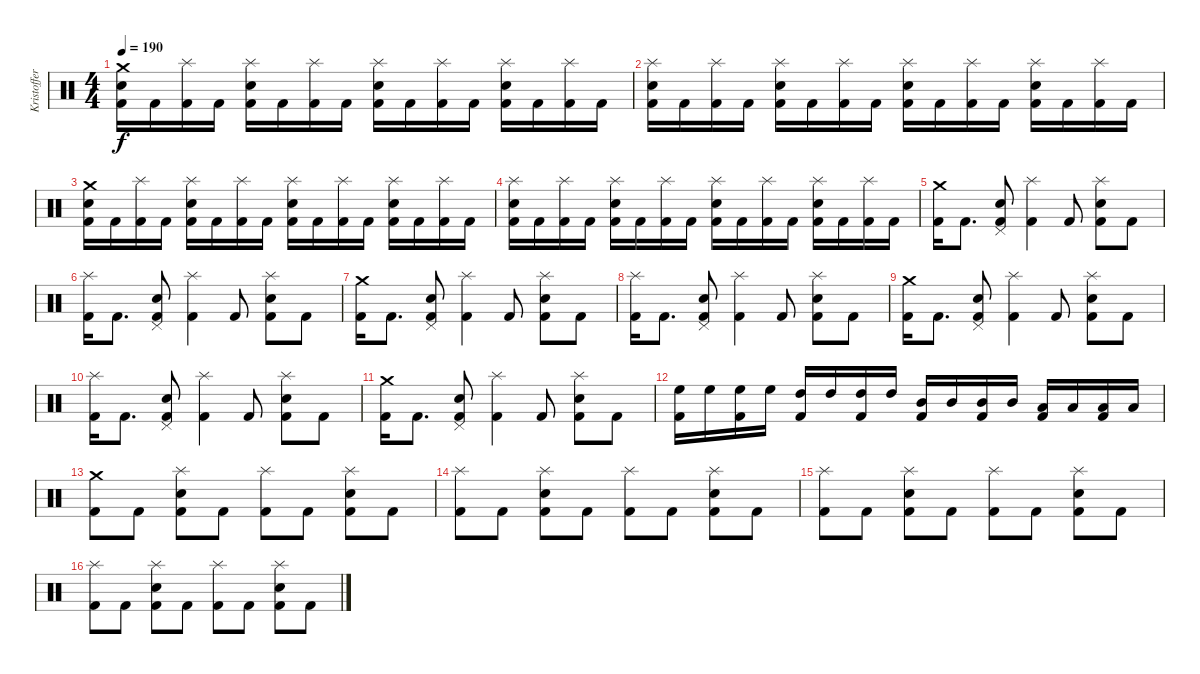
\track ("Kristoffer (Drums)" "Kristoffer") {instrument percussion}
\staff {score}
\articulation defaults
\ts (4 4)
\tempo 190
\clef neutral
\ks c
("Kick (hit) 2" "Electric Snare (hit)" "Crash medium (hit)").16{dy f} "Kick (hit) 2".16 ("Kick (hit) 2" "Splash (hit)").16 "Kick (hit) 2".16 ("Kick (hit) 2" "Electric Snare (hit)" "Splash (hit)").16 "Kick (hit) 2".16 ("Kick (hit) 2" "Splash (hit)").16 "Kick (hit) 2".16 ("Kick (hit) 2" "Electric Snare (hit)" "Splash (hit)").16 "Kick (hit) 2".16 ("Kick (hit) 2" "Splash (hit)").16 "Kick (hit) 2".16 ("Kick (hit) 2" "Electric Snare (hit)" "Splash (hit)").16 "Kick (hit) 2".16 ("Kick (hit) 2" "Splash (hit)").16 "Kick (hit) 2".16 |
("Kick (hit) 2" "Electric Snare (hit)" "Splash (hit)").16 "Kick (hit) 2".16 ("Kick (hit) 2" "Splash (hit)").16 "Kick (hit) 2".16 ("Kick (hit) 2" "Electric Snare (hit)" "Splash (hit)").16 "Kick (hit) 2".16 ("Kick (hit) 2" "Splash (hit)").16 "Kick (hit) 2".16 ("Kick (hit) 2" "Electric Snare (hit)" "Splash (hit)").16 "Kick (hit) 2".16 ("Kick (hit) 2" "Splash (hit)").16 "Kick (hit) 2".16 ("Kick (hit) 2" "Electric Snare (hit)" "Splash (hit)").16 "Kick (hit) 2".16 ("Kick (hit) 2" "Splash (hit)").16 "Kick (hit) 2".16 |
("Kick (hit) 2" "Electric Snare (hit)" "Crash medium (hit)").16 "Kick (hit) 2".16 ("Kick (hit) 2" "Splash (hit)").16 "Kick (hit) 2".16 ("Kick (hit) 2" "Electric Snare (hit)" "Splash (hit)").16 "Kick (hit) 2".16 ("Kick (hit) 2" "Splash (hit)").16 "Kick (hit) 2".16 ("Kick (hit) 2" "Electric Snare (hit)" "Splash (hit)").16 "Kick (hit) 2".16 ("Kick (hit) 2" "Splash (hit)").16 "Kick (hit) 2".16 ("Kick (hit) 2" "Electric Snare (hit)" "Splash (hit)").16 "Kick (hit) 2".16 ("Kick (hit) 2" "Splash (hit)").16 "Kick (hit) 2".16 |
("Kick (hit) 2" "Electric Snare (hit)" "Splash (hit)").16 "Kick (hit) 2".16 ("Kick (hit) 2" "Splash (hit)").16 "Kick (hit) 2".16 ("Kick (hit) 2" "Electric Snare (hit)" "Splash (hit)").16 "Kick (hit) 2".16 ("Kick (hit) 2" "Splash (hit)").16 "Kick (hit) 2".16 ("Kick (hit) 2" "Electric Snare (hit)" "Splash (hit)").16 "Kick (hit) 2".16 ("Kick (hit) 2" "Splash (hit)").16 "Kick (hit) 2".16 ("Kick (hit) 2" "Electric Snare (hit)" "Splash (hit)").16 "Kick (hit) 2".16 ("Kick (hit) 2" "Splash (hit)").16 "Kick (hit) 2".16 |
("Kick (hit) 2" "Crash medium (hit)").16 "Kick (hit) 2".8{d} ("Kick (hit) 2" "Electric Snare (hit)" "Pedal Hi-Hat (hit)").8 ("Kick (hit) 2" "Splash (hit)").4 "Kick (hit) 2".8 ("Kick (hit) 2" "Electric Snare (hit)" "Splash (hit)").8 "Kick (hit) 2".8 |
("Kick (hit) 2" "Splash (hit)").16 "Kick (hit) 2".8{d} ("Kick (hit) 2" "Electric Snare (hit)" "Pedal Hi-Hat (hit)").8 ("Kick (hit) 2" "Splash (hit)").4 "Kick (hit) 2".8 ("Kick (hit) 2" "Electric Snare (hit)" "Splash (hit)").8 "Kick (hit) 2".8 |
("Kick (hit) 2" "Crash medium (hit)").16 "Kick (hit) 2".8{d} ("Kick (hit) 2" "Electric Snare (hit)" "Pedal Hi-Hat (hit)").8 ("Kick (hit) 2" "Splash (hit)").4 "Kick (hit) 2".8 ("Kick (hit) 2" "Electric Snare (hit)" "Splash (hit)").8 "Kick (hit) 2".8 |
("Kick (hit) 2" "Splash (hit)").16 "Kick (hit) 2".8{d} ("Kick (hit) 2" "Electric Snare (hit)" "Pedal Hi-Hat (hit)").8 ("Kick (hit) 2" "Splash (hit)").4 "Kick (hit) 2".8 ("Kick (hit) 2" "Electric Snare (hit)" "Splash (hit)").8 "Kick (hit) 2".8 |
("Kick (hit) 2" "Crash medium (hit)").16 "Kick (hit) 2".8{d} ("Kick (hit) 2" "Electric Snare (hit)" "Pedal Hi-Hat (hit)").8 ("Kick (hit) 2" "Splash (hit)").4 "Kick (hit) 2".8 ("Kick (hit) 2" "Electric Snare (hit)" "Splash (hit)").8 "Kick (hit) 2".8 |
("Kick (hit) 2" "Splash (hit)").16 "Kick (hit) 2".8{d} ("Kick (hit) 2" "Electric Snare (hit)" "Pedal Hi-Hat (hit)").8 ("Kick (hit) 2" "Splash (hit)").4 "Kick (hit) 2".8 ("Kick (hit) 2" "Electric Snare (hit)" "Splash (hit)").8 "Kick (hit) 2".8 |
("Kick (hit) 2" "Crash medium (hit)").16 "Kick (hit) 2".8{d} ("Kick (hit) 2" "Electric Snare (hit)" "Pedal Hi-Hat (hit)").8 ("Kick (hit) 2" "Splash (hit)").4 "Kick (hit) 2".8 ("Kick (hit) 2" "Electric Snare (hit)" "Splash (hit)").8 "Kick (hit) 2".8 |
("Kick (hit) 2" "High Floor Tom (hit)").16 "High Floor Tom (hit)".16 ("Kick (hit) 2" "High Floor Tom (hit)").16 "High Floor Tom (hit)".16 ("Kick (hit) 2" "High Tom (hit)").16 "High Tom (hit)".16 ("Kick (hit) 2" "High Tom (hit)").16 "High Tom (hit)".16 ("Kick (hit) 2" "Mid Tom (hit)").16 "Mid Tom (hit)".16 ("Kick (hit) 2" "Mid Tom (hit)").16 "Mid Tom (hit)".16 ("Kick (hit) 2" "Low Tom (hit)").16 "Low Tom (hit)".16 ("Kick (hit) 2" "Low Tom (hit)").16 "Low Tom (hit)".16 |
("Kick (hit) 2" "Crash medium (hit)").8 "Kick (hit) 2".8 ("Kick (hit) 2" "Electric Snare (hit)" "Splash (hit)").8 "Kick (hit) 2".8 ("Kick (hit) 2" "Splash (hit)").8 "Kick (hit) 2".8 ("Kick (hit) 2" "Electric Snare (hit)" "Splash (hit)").8 "Kick (hit) 2".8 |
("Kick (hit) 2" "Splash (hit)").8 "Kick (hit) 2".8 ("Kick (hit) 2" "Electric Snare (hit)" "Splash (hit)").8 "Kick (hit) 2".8 ("Kick (hit) 2" "Splash (hit)").8 "Kick (hit) 2".8 ("Kick (hit) 2" "Electric Snare (hit)" "Splash (hit)").8 "Kick (hit) 2".8 |
("Kick (hit) 2" "Splash (hit)").8 "Kick (hit) 2".8 ("Kick (hit) 2" "Electric Snare (hit)" "Splash (hit)").8 "Kick (hit) 2".8 ("Kick (hit) 2" "Splash (hit)").8 "Kick (hit) 2".8 ("Kick (hit) 2" "Electric Snare (hit)" "Splash (hit)").8 "Kick (hit) 2".8 |
("Kick (hit) 2" "Splash (hit)").8 "Kick (hit) 2".8 ("Kick (hit) 2" "Electric Snare (hit)" "Splash (hit)").8 "Kick (hit) 2".8 ("Kick (hit) 2" "Splash (hit)").8 "Kick (hit) 2".8 ("Kick (hit) 2" "Electric Snare (hit)" "Splash (hit)").8 "Kick (hit) 2".8
